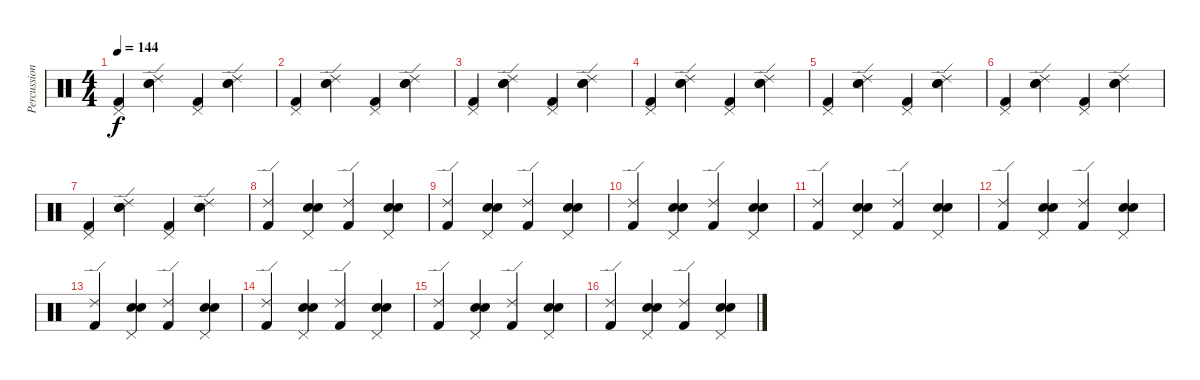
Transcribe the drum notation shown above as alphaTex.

\track ("Percussions" "Percussion") {instrument percussion}
\staff {score}
\articulation defaults
\ts (4 4)
\tempo 144
\clef neutral
\ks c
("Kick (hit) 2" "Pedal Hi-Hat (hit)").4{dy f} ("Snare (hit) 2" "Electric Snare (hit)" "Ride (edge) 2").4 ("Kick (hit) 2" "Pedal Hi-Hat (hit)").4 ("Snare (hit) 2" "Electric Snare (hit)" "Ride (edge) 2").4 |
("Kick (hit) 2" "Pedal Hi-Hat (hit)").4 ("Snare (hit) 2" "Electric Snare (hit)" "Ride (edge) 2").4 ("Kick (hit) 2" "Pedal Hi-Hat (hit)").4 ("Snare (hit) 2" "Electric Snare (hit)" "Ride (edge) 2").4 |
("Kick (hit) 2" "Pedal Hi-Hat (hit)").4 ("Snare (hit) 2" "Electric Snare (hit)" "Ride (edge) 2").4 ("Kick (hit) 2" "Pedal Hi-Hat (hit)").4 ("Snare (hit) 2" "Electric Snare (hit)" "Ride (edge) 2").4 |
("Kick (hit) 2" "Pedal Hi-Hat (hit)").4 ("Snare (hit) 2" "Electric Snare (hit)" "Ride (edge) 2").4 ("Kick (hit) 2" "Pedal Hi-Hat (hit)").4 ("Snare (hit) 2" "Electric Snare (hit)" "Ride (edge) 2").4 |
("Kick (hit) 2" "Pedal Hi-Hat (hit)").4 ("Snare (hit) 2" "Electric Snare (hit)" "Ride (edge) 2").4 ("Kick (hit) 2" "Pedal Hi-Hat (hit)").4 ("Snare (hit) 2" "Electric Snare (hit)" "Ride (edge) 2").4 |
("Kick (hit) 2" "Pedal Hi-Hat (hit)").4 ("Snare (hit) 2" "Electric Snare (hit)" "Ride (edge) 2").4 ("Kick (hit) 2" "Pedal Hi-Hat (hit)").4 ("Snare (hit) 2" "Electric Snare (hit)" "Ride (edge) 2").4 |
("Kick (hit) 2" "Pedal Hi-Hat (hit)").4 ("Snare (hit) 2" "Electric Snare (hit)" "Ride (edge) 2").4 ("Kick (hit) 2" "Pedal Hi-Hat (hit)").4 ("Snare (hit) 2" "Electric Snare (hit)" "Ride (edge) 2").4 |
("Kick (hit) 2" "Ride (edge) 2").4 ("Snare (hit) 2" "Electric Snare (hit)" "Pedal Hi-Hat (hit)").4 ("Kick (hit) 2" "Ride (edge) 2").4 ("Snare (hit) 2" "Electric Snare (hit)" "Pedal Hi-Hat (hit)").4 |
("Kick (hit) 2" "Ride (edge) 2").4 ("Snare (hit) 2" "Electric Snare (hit)" "Pedal Hi-Hat (hit)").4 ("Kick (hit) 2" "Ride (edge) 2").4 ("Snare (hit) 2" "Electric Snare (hit)" "Pedal Hi-Hat (hit)").4 |
("Kick (hit) 2" "Ride (edge) 2").4 ("Snare (hit) 2" "Electric Snare (hit)" "Pedal Hi-Hat (hit)").4 ("Kick (hit) 2" "Ride (edge) 2").4 ("Snare (hit) 2" "Electric Snare (hit)" "Pedal Hi-Hat (hit)").4 |
("Kick (hit) 2" "Ride (edge) 2").4 ("Snare (hit) 2" "Electric Snare (hit)" "Pedal Hi-Hat (hit)").4 ("Kick (hit) 2" "Ride (edge) 2").4 ("Snare (hit) 2" "Electric Snare (hit)" "Pedal Hi-Hat (hit)").4 |
("Kick (hit) 2" "Ride (edge) 2").4 ("Snare (hit) 2" "Electric Snare (hit)" "Pedal Hi-Hat (hit)").4 ("Kick (hit) 2" "Ride (edge) 2").4 ("Snare (hit) 2" "Electric Snare (hit)" "Pedal Hi-Hat (hit)").4 |
("Kick (hit) 2" "Ride (edge) 2").4 ("Snare (hit) 2" "Electric Snare (hit)" "Pedal Hi-Hat (hit)").4 ("Kick (hit) 2" "Ride (edge) 2").4 ("Snare (hit) 2" "Electric Snare (hit)" "Pedal Hi-Hat (hit)").4 |
("Kick (hit) 2" "Ride (edge) 2").4 ("Snare (hit) 2" "Electric Snare (hit)" "Pedal Hi-Hat (hit)").4 ("Kick (hit) 2" "Ride (edge) 2").4 ("Snare (hit) 2" "Electric Snare (hit)" "Pedal Hi-Hat (hit)").4 |
("Kick (hit) 2" "Ride (edge) 2").4 ("Snare (hit) 2" "Electric Snare (hit)" "Pedal Hi-Hat (hit)").4 ("Kick (hit) 2" "Ride (edge) 2").4 ("Snare (hit) 2" "Electric Snare (hit)" "Pedal Hi-Hat (hit)").4 |
("Kick (hit) 2" "Ride (edge) 2").4 ("Snare (hit) 2" "Electric Snare (hit)" "Pedal Hi-Hat (hit)").4 ("Kick (hit) 2" "Ride (edge) 2").4 ("Snare (hit) 2" "Electric Snare (hit)" "Pedal Hi-Hat (hit)").4
